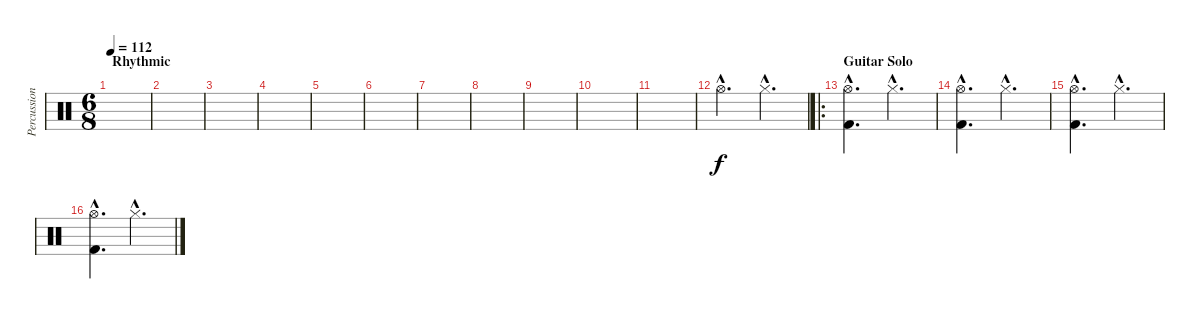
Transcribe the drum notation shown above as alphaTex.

\track ("Percussion" "Percussion") {instrument percussion}
\staff {score}
\articulation defaults
\ts (6 8)
\section ("" "Rhythmic")
\tempo 112
\clef neutral
\ks c
|
|
|
|
|
|
|
|
|
|
|
"Hi-Hat (open)"{hac}.4{d} "Hi-Hat (closed)"{hac}.4{d} |
\ro
\section ("" "Guitar Solo")
("Hi-Hat (open)"{hac} "Kick (hit) 2"{hac}).4{d} "Hi-Hat (closed)"{hac}.4{d} |
("Hi-Hat (open)"{hac} "Kick (hit) 2"{hac}).4{d} "Hi-Hat (closed)"{hac}.4{d} |
("Hi-Hat (open)"{hac} "Kick (hit) 2"{hac}).4{d} "Hi-Hat (closed)"{hac}.4{d} |
("Hi-Hat (open)"{hac} "Kick (hit) 2"{hac}).4{d} "Hi-Hat (closed)"{hac}.4{d}
